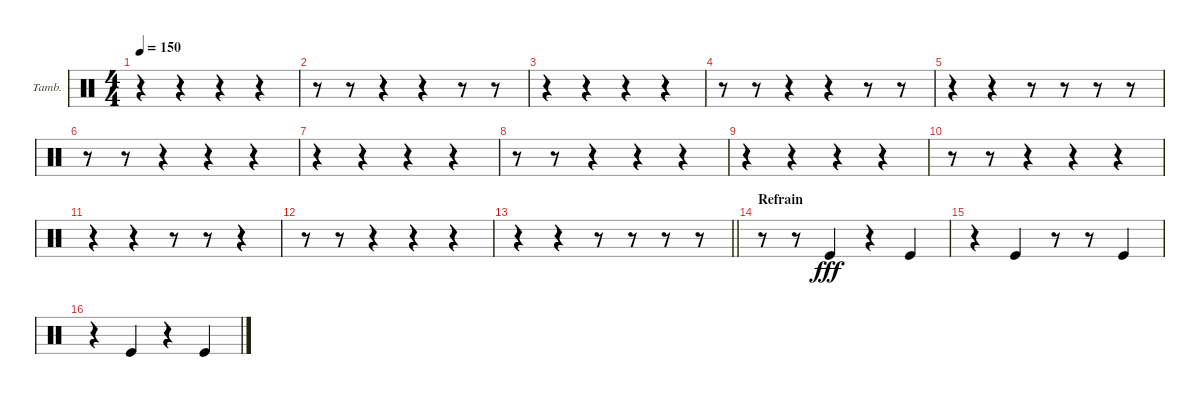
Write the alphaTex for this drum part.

\bracketExtendMode groupsimilarinstruments
\firstSystemTrackNameOrientation horizontal
\otherSystemsTrackNameOrientation horizontal
\track ("Tambourine" "Tamb.") {instrument percussion}
\staff {score}
\articulation defaults
\ts (4 4)
\tempo 150
\clef neutral
\ks c
r.4{dy fff} r.4 r.4 r.4 |
r.8 r.8 r.4 r.4 r.8 r.8 |
r.4 r.4 r.4 r.4 |
r.8 r.8 r.4 r.4 r.8 r.8 |
r.4 r.4 r.8 r.8 r.8 r.8 |
r.8 r.8 r.4 r.4 r.4 |
r.4 r.4 r.4 r.4 |
r.8 r.8 r.4 r.4 r.4 |
r.4 r.4 r.4 r.4 |
r.8 r.8 r.4 r.4 r.4 |
r.4 r.4 r.8 r.8 r.4 |
r.8 r.8 r.4 r.4 r.4 |
\barLineRight lightlight
r.4 r.4 r.8 r.8 r.8 r.8 |
\section ("" "Refrain")
r.8 r.8 "Kick (hit)".4 r.4 "Kick (hit)".4 |
r.4 "Kick (hit)".4 r.8 r.8 "Kick (hit)".4 |
r.4 "Kick (hit)".4 r.4 "Kick (hit)".4
